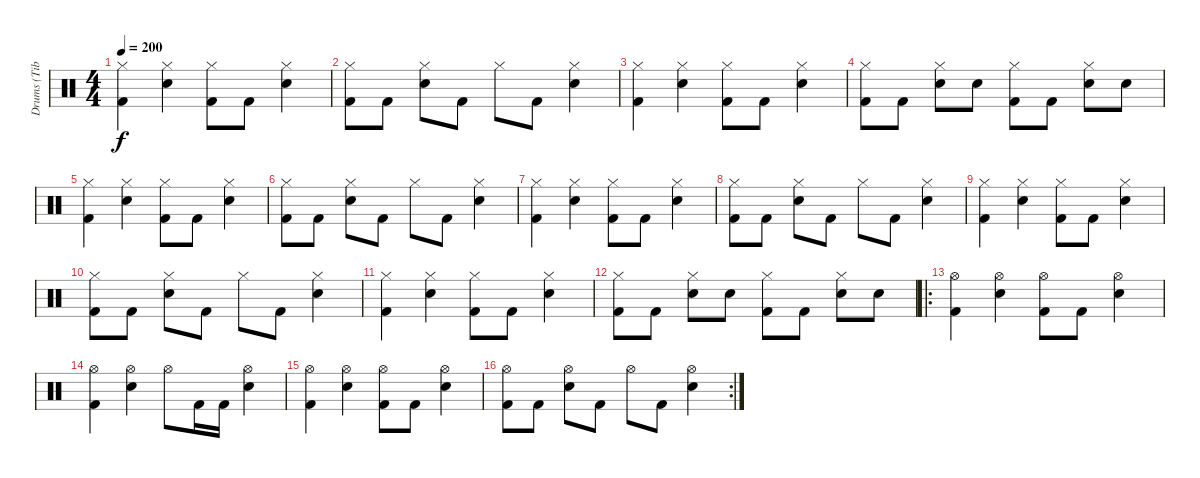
\track ("Drums (Tibcsi Kiss)" "Drums (Tib") {instrument percussion}
\staff {score}
\articulation defaults
\ts (4 4)
\tempo 200
\clef neutral
\ks c
("Hi-Hat (closed)" "Kick (hit) 2").4{dy f} ("Hi-Hat (closed)" "Snare (hit) 2").4 ("Hi-Hat (closed)" "Kick (hit) 2").8 "Kick (hit) 2".8 ("Hi-Hat (closed)" "Snare (hit) 2").4 |
("Hi-Hat (closed)" "Kick (hit) 2").8 "Kick (hit) 2".8 ("Hi-Hat (closed)" "Snare (hit) 2").8 "Kick (hit) 2".8 "Hi-Hat (closed)".8 "Kick (hit) 2".8 ("Hi-Hat (closed)" "Snare (hit) 2").4 |
("Hi-Hat (closed)" "Kick (hit) 2").4 ("Hi-Hat (closed)" "Snare (hit) 2").4 ("Hi-Hat (closed)" "Kick (hit) 2").8 "Kick (hit) 2".8 ("Hi-Hat (closed)" "Snare (hit) 2").4 |
("Hi-Hat (closed)" "Kick (hit) 2").8 "Kick (hit) 2".8 ("Hi-Hat (closed)" "Snare (hit) 2").8 "Snare (hit) 2".8 ("Hi-Hat (closed)" "Kick (hit) 2").8 "Kick (hit) 2".8 ("Hi-Hat (closed)" "Snare (hit) 2").8 "Snare (hit) 2".8 |
("Hi-Hat (closed)" "Kick (hit) 2").4 ("Hi-Hat (closed)" "Snare (hit) 2").4 ("Hi-Hat (closed)" "Kick (hit) 2").8 "Kick (hit) 2".8 ("Hi-Hat (closed)" "Snare (hit) 2").4 |
("Hi-Hat (closed)" "Kick (hit) 2").8 "Kick (hit) 2".8 ("Hi-Hat (closed)" "Snare (hit) 2").8 "Kick (hit) 2".8 "Hi-Hat (closed)".8 "Kick (hit) 2".8 ("Hi-Hat (closed)" "Snare (hit) 2").4 |
("Hi-Hat (closed)" "Kick (hit) 2").4 ("Hi-Hat (closed)" "Snare (hit) 2").4 ("Hi-Hat (closed)" "Kick (hit) 2").8 "Kick (hit) 2".8 ("Hi-Hat (closed)" "Snare (hit) 2").4 |
("Hi-Hat (closed)" "Kick (hit) 2").8 "Kick (hit) 2".8 ("Hi-Hat (closed)" "Snare (hit) 2").8 "Kick (hit) 2".8 "Hi-Hat (closed)".8 "Kick (hit) 2".8 ("Hi-Hat (closed)" "Snare (hit) 2").4 |
("Hi-Hat (closed)" "Kick (hit) 2").4 ("Hi-Hat (closed)" "Snare (hit) 2").4 ("Hi-Hat (closed)" "Kick (hit) 2").8 "Kick (hit) 2".8 ("Hi-Hat (closed)" "Snare (hit) 2").4 |
("Hi-Hat (closed)" "Kick (hit) 2").8 "Kick (hit) 2".8 ("Hi-Hat (closed)" "Snare (hit) 2").8 "Kick (hit) 2".8 "Hi-Hat (closed)".8 "Kick (hit) 2".8 ("Hi-Hat (closed)" "Snare (hit) 2").4 |
("Hi-Hat (closed)" "Kick (hit) 2").4 ("Hi-Hat (closed)" "Snare (hit) 2").4 ("Hi-Hat (closed)" "Kick (hit) 2").8 "Kick (hit) 2".8 ("Hi-Hat (closed)" "Snare (hit) 2").4 |
("Hi-Hat (closed)" "Kick (hit) 2").8 "Kick (hit) 2".8 ("Hi-Hat (closed)" "Snare (hit) 2").8 "Snare (hit) 2".8 ("Hi-Hat (closed)" "Kick (hit) 2").8 "Kick (hit) 2".8 ("Hi-Hat (closed)" "Snare (hit) 2").8 "Snare (hit) 2".8 |
\ro
("Hi-Hat (open)" "Kick (hit) 2").4 ("Hi-Hat (open)" "Snare (hit) 2").4 ("Hi-Hat (open)" "Kick (hit) 2").8 "Kick (hit) 2".8 ("Hi-Hat (open)" "Snare (hit) 2").4 |
("Hi-Hat (open)" "Kick (hit) 2").4 ("Hi-Hat (open)" "Snare (hit) 2").4 "Hi-Hat (open)".8 "Kick (hit) 2".16 "Kick (hit) 2".16 ("Hi-Hat (open)" "Snare (hit) 2").4 |
("Hi-Hat (open)" "Kick (hit) 2").4 ("Hi-Hat (open)" "Snare (hit) 2").4 ("Hi-Hat (open)" "Kick (hit) 2").8 "Kick (hit) 2".8 ("Hi-Hat (open)" "Snare (hit) 2").4 |
\rc 2
("Hi-Hat (open)" "Kick (hit) 2").8 "Kick (hit) 2".8 ("Hi-Hat (open)" "Snare (hit) 2").8 "Kick (hit) 2".8 "Hi-Hat (open)".8 "Kick (hit) 2".8 ("Hi-Hat (open)" "Snare (hit) 2").4
